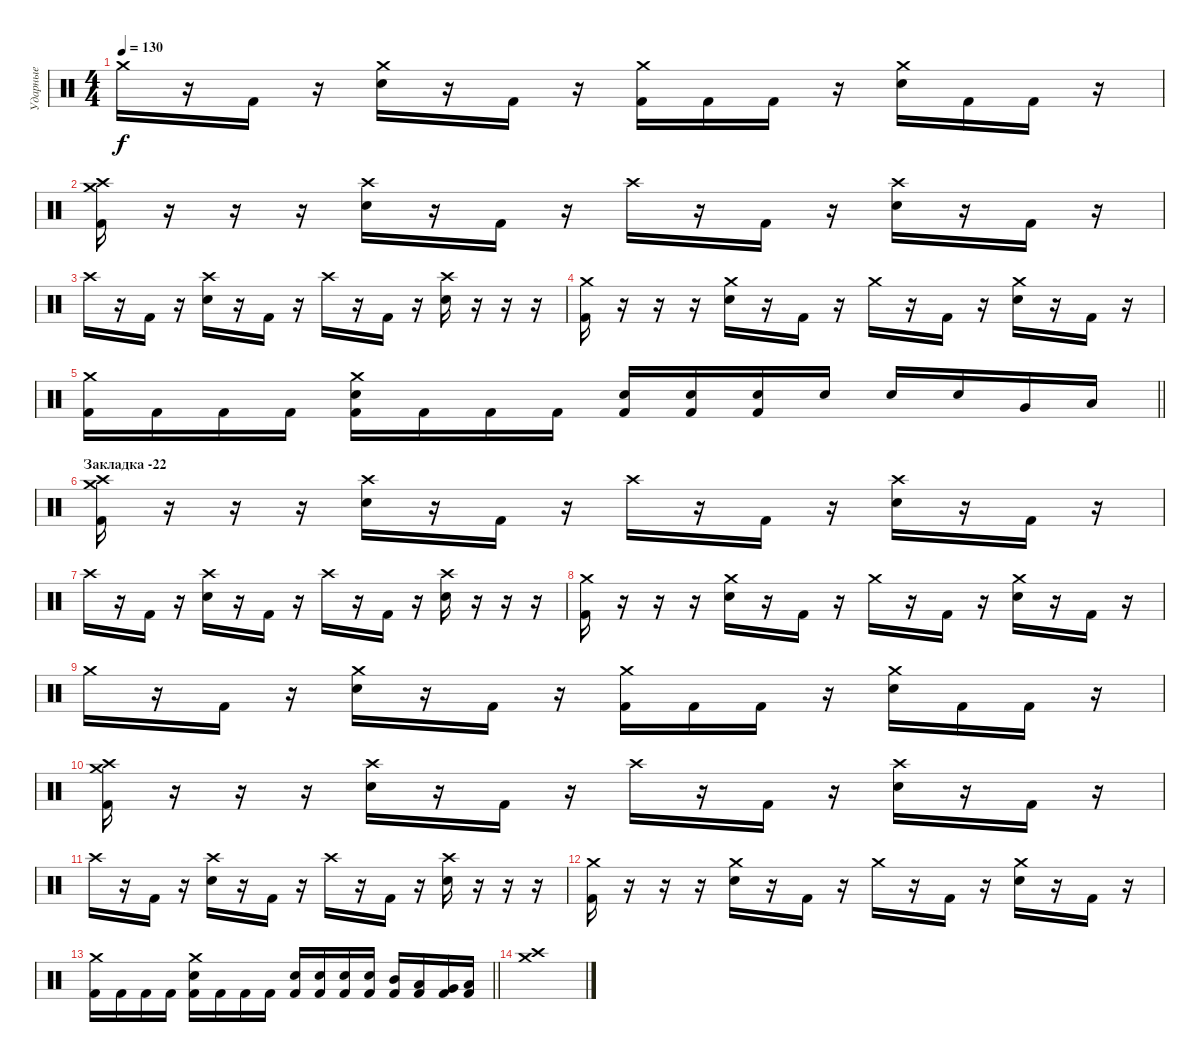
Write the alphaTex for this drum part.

\track ("Ударные" "Ударные") {instrument percussion}
\staff {score}
\articulation defaults
\ts (4 4)
\tempo 130
\clef neutral
\ks c "Crash medium (hit)".16{dy f}
r.16 "Kick (hit) 2".16 r.16 ("Crash medium (hit)" "Snare (hit) 2").16 r.16 "Kick (hit) 2".16 r.16 ("Crash medium (hit)" "Kick (hit) 2").16 "Kick (hit) 2".16 "Kick (hit) 2".16 r.16 ("Crash medium (hit)" "Snare (hit) 2").16 "Kick (hit) 2".16 "Kick (hit) 2".16 r.16 |
("Crash high (hit)" "Crash medium (hit)" "Kick (hit) 2").16 r.16 r.16 r.16 ("Crash high (hit)" "Snare (hit) 2").16 r.16 "Kick (hit) 2".16 r.16 "Crash high (hit)".16 r.16 "Kick (hit) 2".16 r.16 ("Crash high (hit)" "Snare (hit) 2").16 r.16 "Kick (hit) 2".16 r.16 |
"Crash high (hit)".16 r.16 "Kick (hit) 2".16 r.16 ("Crash high (hit)" "Snare (hit) 2").16 r.16 "Kick (hit) 2".16 r.16 "Crash high (hit)".16 r.16 "Kick (hit) 2".16 r.16 ("Crash high (hit)" "Snare (hit) 2").16 r.16 r.16 r.16 |
("Crash medium (hit)" "Kick (hit) 2").16 r.16 r.16 r.16 ("Crash medium (hit)" "Snare (hit) 2").16 r.16 "Kick (hit) 2".16 r.16 "Crash medium (hit)".16 r.16 "Kick (hit) 2".16 r.16 ("Crash medium (hit)" "Snare (hit) 2").16 r.16 "Kick (hit) 2".16 r.16 |
\barLineRight lightlight
("Crash medium (hit)" "Kick (hit) 2").16 "Kick (hit) 2".16 "Kick (hit) 2".16 "Kick (hit) 2".16 ("Crash medium (hit)" "Snare (hit) 2" "Kick (hit) 2").16 "Kick (hit) 2".16 "Kick (hit) 2".16 "Kick (hit) 2".16 ("Snare (hit) 2" "Kick (hit) 2").16 ("Snare (hit) 2" "Kick (hit) 2").16 ("Snare (hit) 2" "Kick (hit) 2").16 "Snare (hit) 2".16 "Snare (hit) 2".16 "Snare (hit) 2".16 "Very Low Tom (hit)".16 "Low Floor Tom (hit)".16 |
\section ("" "Закладка -22")
("Crash high (hit)" "Crash medium (hit)" "Kick (hit) 2").16 r.16 r.16 r.16 ("Crash high (hit)" "Snare (hit) 2").16 r.16 "Kick (hit) 2".16 r.16 "Crash high (hit)".16 r.16 "Kick (hit) 2".16 r.16 ("Crash high (hit)" "Snare (hit) 2").16 r.16 "Kick (hit) 2".16 r.16 |
"Crash high (hit)".16 r.16 "Kick (hit) 2".16 r.16 ("Crash high (hit)" "Snare (hit) 2").16 r.16 "Kick (hit) 2".16 r.16 "Crash high (hit)".16 r.16 "Kick (hit) 2".16 r.16 ("Crash high (hit)" "Snare (hit) 2").16 r.16 r.16 r.16 |
("Crash medium (hit)" "Kick (hit) 2").16 r.16 r.16 r.16 ("Crash medium (hit)" "Snare (hit) 2").16 r.16 "Kick (hit) 2".16 r.16 "Crash medium (hit)".16 r.16 "Kick (hit) 2".16 r.16 ("Crash medium (hit)" "Snare (hit) 2").16 r.16 "Kick (hit) 2".16 r.16 |
"Crash medium (hit)".16 r.16 "Kick (hit) 2".16 r.16 ("Crash medium (hit)" "Snare (hit) 2").16 r.16 "Kick (hit) 2".16 r.16 ("Crash medium (hit)" "Kick (hit) 2").16 "Kick (hit) 2".16 "Kick (hit) 2".16 r.16 ("Crash medium (hit)" "Snare (hit) 2").16 "Kick (hit) 2".16 "Kick (hit) 2".16 r.16 |
("Crash high (hit)" "Crash medium (hit)" "Kick (hit) 2").16 r.16 r.16 r.16 ("Crash high (hit)" "Snare (hit) 2").16 r.16 "Kick (hit) 2".16 r.16 "Crash high (hit)".16 r.16 "Kick (hit) 2".16 r.16 ("Crash high (hit)" "Snare (hit) 2").16 r.16 "Kick (hit) 2".16 r.16 |
"Crash high (hit)".16 r.16 "Kick (hit) 2".16 r.16 ("Crash high (hit)" "Snare (hit) 2").16 r.16 "Kick (hit) 2".16 r.16 "Crash high (hit)".16 r.16 "Kick (hit) 2".16 r.16 ("Crash high (hit)" "Snare (hit) 2").16 r.16 r.16 r.16 |
("Crash medium (hit)" "Kick (hit) 2").16 r.16 r.16 r.16 ("Crash medium (hit)" "Snare (hit) 2").16 r.16 "Kick (hit) 2".16 r.16 "Crash medium (hit)".16 r.16 "Kick (hit) 2".16 r.16 ("Crash medium (hit)" "Snare (hit) 2").16 r.16 "Kick (hit) 2".16 r.16 |
\barLineRight lightlight
("Crash medium (hit)" "Kick (hit) 2").16 "Kick (hit) 2".16 "Kick (hit) 2".16 "Kick (hit) 2".16 ("Crash medium (hit)" "Snare (hit) 2" "Kick (hit) 2").16 "Kick (hit) 2".16 "Kick (hit) 2".16 "Kick (hit) 2".16 ("Snare (hit) 2" "Kick (hit) 2").16 ("Snare (hit) 2" "Kick (hit) 2").16 ("Snare (hit) 2" "Kick (hit) 2").16 ("Snare (hit) 2" "Kick (hit) 2").16 ("Mid Tom (hit)" "Kick (hit) 2").16 ("Low Tom (hit)" "Kick (hit) 2").16 ("Very Low Tom (hit)" "Kick (hit) 2").16 ("Low Floor Tom (hit)" "Kick (hit) 2").16 |
("Crash medium (hit)" "Crash high (hit)").1
